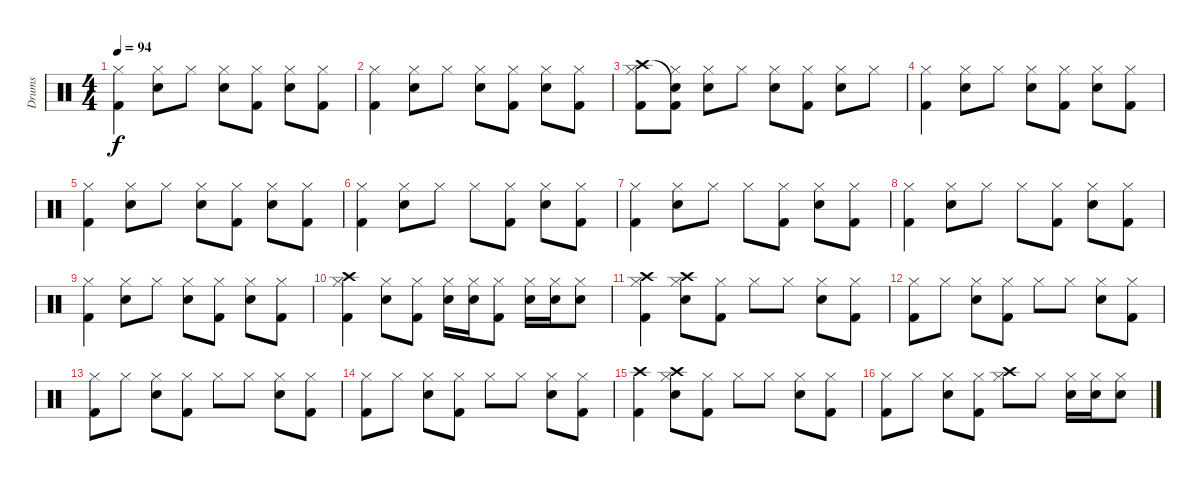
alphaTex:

\track ("Drums" "Drums") {instrument percussion}
\staff {score}
\articulation defaults
\ts (4 4)
\tempo 94
\clef neutral
\ks c
("Hi-Hat (closed)" "Kick (hit) 2").4{dy f} ("Hi-Hat (closed)" "Electric Snare (hit)").8 "Hi-Hat (closed)".8 ("Hi-Hat (closed)" "Electric Snare (hit)").8 ("Hi-Hat (closed)" "Kick (hit) 2").8 ("Hi-Hat (closed)" "Electric Snare (hit)").8 ("Hi-Hat (closed)" "Kick (hit) 2").8 |
("Hi-Hat (closed)" "Kick (hit) 2").4 ("Hi-Hat (closed)" "Electric Snare (hit)").8 "Hi-Hat (closed)".8 ("Hi-Hat (closed)" "Electric Snare (hit)").8 ("Hi-Hat (closed)" "Kick (hit) 2").8 ("Hi-Hat (closed)" "Electric Snare (hit)").8 ("Hi-Hat (closed)" "Kick (hit) 2").8 |
("Crash high (hit)" "Hi-Hat (closed)" "Kick (hit) 2").8 ("Snare (hit)"{t} "Hi-Hat (closed)" "Kick (hit) 2").8 ("Hi-Hat (closed)" "Electric Snare (hit)").8 "Hi-Hat (closed)".8 ("Hi-Hat (closed)" "Electric Snare (hit)").8 ("Hi-Hat (closed)" "Kick (hit) 2").8 ("Hi-Hat (closed)" "Electric Snare (hit)").8 "Hi-Hat (closed)".8 |
("Hi-Hat (closed)" "Kick (hit) 2").4 ("Hi-Hat (closed)" "Electric Snare (hit)").8 "Hi-Hat (closed)".8 ("Hi-Hat (closed)" "Electric Snare (hit)").8 ("Hi-Hat (closed)" "Kick (hit) 2").8 ("Hi-Hat (closed)" "Electric Snare (hit)").8 ("Hi-Hat (closed)" "Kick (hit) 2").8 |
("Hi-Hat (closed)" "Kick (hit) 2").4 ("Hi-Hat (closed)" "Electric Snare (hit)").8 "Hi-Hat (closed)".8 ("Hi-Hat (closed)" "Electric Snare (hit)").8 ("Hi-Hat (closed)" "Kick (hit) 2").8 ("Hi-Hat (closed)" "Electric Snare (hit)").8 ("Hi-Hat (closed)" "Kick (hit) 2").8 |
("Hi-Hat (closed)" "Kick (hit) 2").4 ("Hi-Hat (closed)" "Electric Snare (hit)").8 "Hi-Hat (closed)".8 "Hi-Hat (closed)".8 ("Hi-Hat (closed)" "Kick (hit) 2").8 ("Hi-Hat (closed)" "Electric Snare (hit)").8 ("Hi-Hat (closed)" "Kick (hit) 2").8 |
("Hi-Hat (closed)" "Kick (hit) 2").4 ("Hi-Hat (closed)" "Electric Snare (hit)").8 "Hi-Hat (closed)".8 "Hi-Hat (closed)".8 ("Hi-Hat (closed)" "Kick (hit) 2").8 ("Hi-Hat (closed)" "Electric Snare (hit)").8 ("Hi-Hat (closed)" "Kick (hit) 2").8 |
("Hi-Hat (closed)" "Kick (hit) 2").4 ("Hi-Hat (closed)" "Electric Snare (hit)").8 "Hi-Hat (closed)".8 "Hi-Hat (closed)".8 ("Hi-Hat (closed)" "Kick (hit) 2").8 ("Hi-Hat (closed)" "Electric Snare (hit)").8 ("Hi-Hat (closed)" "Kick (hit) 2").8 |
("Hi-Hat (closed)" "Kick (hit) 2").4 ("Hi-Hat (closed)" "Electric Snare (hit)").8 "Hi-Hat (closed)".8 ("Hi-Hat (closed)" "Electric Snare (hit)").8 ("Hi-Hat (closed)" "Kick (hit) 2").8 ("Hi-Hat (closed)" "Electric Snare (hit)").8 ("Hi-Hat (closed)" "Kick (hit) 2").8 |
("Crash high (hit)" "Hi-Hat (closed)" "Kick (hit) 2").4 ("Hi-Hat (closed)" "Electric Snare (hit)").8 ("Hi-Hat (closed)" "Kick (hit) 2").8 ("Hi-Hat (closed)" "Electric Snare (hit)").16 ("Hi-Hat (closed)" "Electric Snare (hit)").16 ("Hi-Hat (closed)" "Kick (hit) 2").8 ("Hi-Hat (closed)" "Electric Snare (hit)").16 ("Hi-Hat (closed)" "Electric Snare (hit)").16 ("Hi-Hat (closed)" "Electric Snare (hit)").8 |
("Crash high (hit)" "Hi-Hat (closed)" "Kick (hit) 2").4 ("Crash high (hit)" "Hi-Hat (closed)" "Electric Snare (hit)").8 ("Hi-Hat (closed)" "Kick (hit) 2").8 "Hi-Hat (closed)".8 "Hi-Hat (closed)".8 ("Hi-Hat (closed)" "Electric Snare (hit)").8 ("Hi-Hat (closed)" "Kick (hit) 2").8 |
("Hi-Hat (closed)" "Kick (hit) 2").8 "Hi-Hat (closed)".8 ("Hi-Hat (closed)" "Electric Snare (hit)").8 ("Hi-Hat (closed)" "Kick (hit) 2").8 "Hi-Hat (closed)".8 "Hi-Hat (closed)".8 ("Hi-Hat (closed)" "Electric Snare (hit)").8 ("Hi-Hat (closed)" "Kick (hit) 2").8 |
("Hi-Hat (closed)" "Kick (hit) 2").8 "Hi-Hat (closed)".8 ("Hi-Hat (closed)" "Electric Snare (hit)").8 ("Hi-Hat (closed)" "Kick (hit) 2").8 "Hi-Hat (closed)".8 "Hi-Hat (closed)".8 ("Hi-Hat (closed)" "Electric Snare (hit)").8 ("Hi-Hat (closed)" "Kick (hit) 2").8 |
("Hi-Hat (closed)" "Kick (hit) 2").8 "Hi-Hat (closed)".8 ("Hi-Hat (closed)" "Electric Snare (hit)").8 ("Hi-Hat (closed)" "Kick (hit) 2").8 "Hi-Hat (closed)".8 "Hi-Hat (closed)".8 ("Hi-Hat (closed)" "Electric Snare (hit)").8 ("Hi-Hat (closed)" "Kick (hit) 2").8 |
("Crash high (hit)" "Kick (hit) 2").4 ("Crash high (hit)" "Hi-Hat (closed)" "Electric Snare (hit)").8 ("Hi-Hat (closed)" "Kick (hit) 2").8 "Hi-Hat (closed)".8 "Hi-Hat (closed)".8 ("Hi-Hat (closed)" "Electric Snare (hit)").8 ("Hi-Hat (closed)" "Kick (hit) 2").8 |
("Hi-Hat (closed)" "Kick (hit) 2").8 "Hi-Hat (closed)".8 ("Hi-Hat (closed)" "Electric Snare (hit)").8 ("Hi-Hat (closed)" "Kick (hit) 2").8 ("Crash high (hit)" "Hi-Hat (closed)").8 "Hi-Hat (closed)".8 ("Hi-Hat (closed)" "Electric Snare (hit)").16 ("Hi-Hat (closed)" "Electric Snare (hit)").16 ("Hi-Hat (closed)" "Electric Snare (hit)").8
